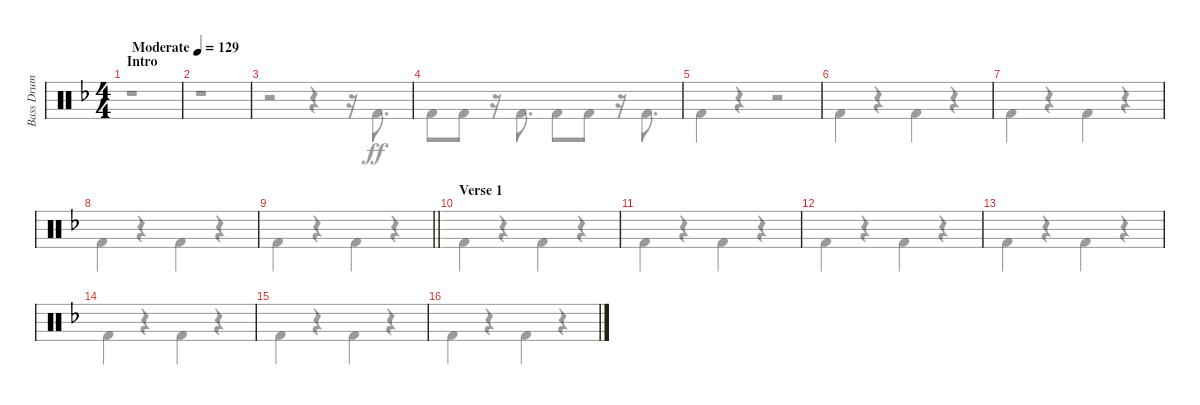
\track ("Bass Drum" "Bass Drum") {instrument percussion}
\staff {score}
\articulation defaults
\voice
\ts (4 4)
\section ("" "Intro")
\tempo (129 "Moderate")
\clef neutral
\ks dminor
|
|
|
|
|
|
|
|
\barLineRight lightlight
|
\section ("" "Verse 1")
|
|
|
|
|
|
\voice
\clef neutral
\ks dminor
r.1{dy ff} |
r.1 |
r.2 r.4 r.16 "Kick (hit) 2".8{d} |
"Kick (hit) 2".8 "Kick (hit) 2".8 r.16 "Kick (hit) 2".8{d} "Kick (hit) 2".8 "Kick (hit) 2".8 r.16 "Kick (hit) 2".8{d} |
"Kick (hit) 2".4 r.4 r.2 |
"Kick (hit) 2".4 r.4 "Kick (hit) 2".4 r.4 |
"Kick (hit) 2".4 r.4 "Kick (hit) 2".4 r.4 |
"Kick (hit) 2".4 r.4 "Kick (hit) 2".4 r.4 |
\barLineRight lightlight "Kick (hit) 2".4
r.4 "Kick (hit) 2".4 r.4 |
"Kick (hit) 2".4 r.4 "Kick (hit) 2".4 r.4 |
"Kick (hit) 2".4 r.4 "Kick (hit) 2".4 r.4 |
"Kick (hit) 2".4 r.4 "Kick (hit) 2".4 r.4 |
"Kick (hit) 2".4 r.4 "Kick (hit) 2".4 r.4 |
"Kick (hit) 2".4 r.4 "Kick (hit) 2".4 r.4 |
"Kick (hit) 2".4 r.4 "Kick (hit) 2".4 r.4 |
"Kick (hit) 2".4 r.4 "Kick (hit) 2".4 r.4
